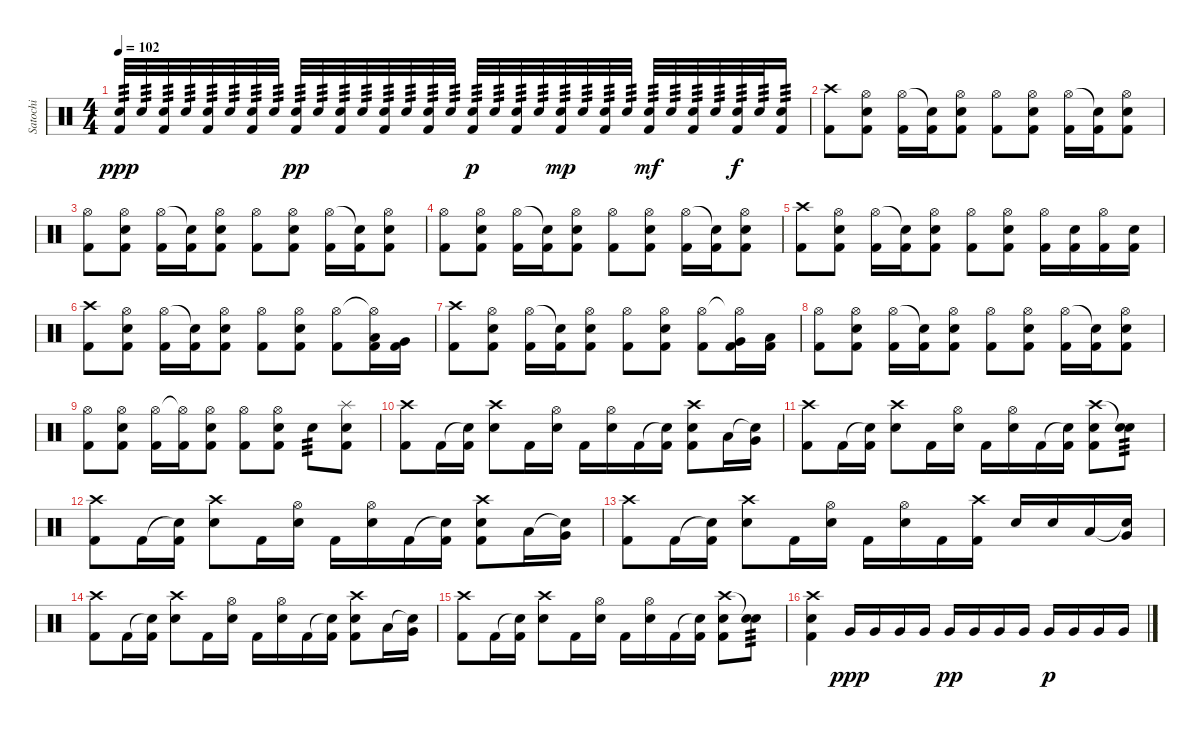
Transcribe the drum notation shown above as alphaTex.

\track ("Satochi" "Satochi") {instrument percussion}
\staff {score}
\articulation defaults
\ts (4 4)
\tempo 102
\clef neutral
\ks c
("Electric Snare (hit)" "Kick (hit) 2").32{tp 3 dy ppp} "Electric Snare (hit)".32{tp 3} ("Electric Snare (hit)" "Kick (hit) 2").32{tp 3} "Electric Snare (hit)".32{tp 3} ("Electric Snare (hit)" "Kick (hit) 2").32{tp 3} "Electric Snare (hit)".32{tp 3} ("Electric Snare (hit)" "Kick (hit) 2").32{tp 3} "Electric Snare (hit)".32{tp 3} ("Electric Snare (hit)" "Kick (hit) 2").32{tp 3 dy pp} "Electric Snare (hit)".32{tp 3} ("Electric Snare (hit)" "Kick (hit) 2").32{tp 3} "Electric Snare (hit)".32{tp 3} ("Electric Snare (hit)" "Kick (hit) 2").32{tp 3} "Electric Snare (hit)".32{tp 3} ("Electric Snare (hit)" "Kick (hit) 2").32{tp 3} "Electric Snare (hit)".32{tp 3} ("Electric Snare (hit)" "Kick (hit) 2").32{tp 3 dy p} "Electric Snare (hit)".32{tp 3} ("Electric Snare (hit)" "Kick (hit) 2").32{tp 3} "Electric Snare (hit)".32{tp 3} ("Electric Snare (hit)" "Kick (hit) 2").32{tp 3 dy mp} "Electric Snare (hit)".32{tp 3} ("Electric Snare (hit)" "Kick (hit) 2").32{tp 3} "Electric Snare (hit)".32{tp 3} ("Electric Snare (hit)" "Kick (hit) 2").32{tp 3 dy mf} "Electric Snare (hit)".32{tp 3} ("Electric Snare (hit)" "Kick (hit) 2").32{tp 3} "Electric Snare (hit)".32{tp 3} ("Electric Snare (hit)" "Kick (hit) 2").32{tp 3 dy f} "Electric Snare (hit)".32{tp 3} ("Electric Snare (hit)" "Kick (hit) 2").16{tp 3} |
("Crash high (hit)" "Kick (hit) 2").8 ("Hi-Hat (open)" "Electric Snare (hit)" "Kick (hit) 2").8 ("Hi-Hat (open)" "Kick (hit) 2").16 ("Snare (hit)"{t} "Kick (hit) 2").16 ("Hi-Hat (open)" "Electric Snare (hit)" "Kick (hit) 2").8 ("Hi-Hat (open)" "Kick (hit) 2").8 ("Hi-Hat (open)" "Electric Snare (hit)" "Kick (hit) 2").8 ("Hi-Hat (open)" "Kick (hit) 2").16 ("Snare (hit)"{t} "Kick (hit) 2").16 ("Hi-Hat (open)" "Electric Snare (hit)" "Kick (hit) 2").8 |
("Hi-Hat (open)" "Kick (hit) 2").8 ("Hi-Hat (open)" "Electric Snare (hit)" "Kick (hit) 2").8 ("Hi-Hat (open)" "Kick (hit) 2").16 ("Snare (hit)"{t} "Kick (hit) 2").16 ("Hi-Hat (open)" "Electric Snare (hit)" "Kick (hit) 2").8 ("Hi-Hat (open)" "Kick (hit) 2").8 ("Hi-Hat (open)" "Electric Snare (hit)" "Kick (hit) 2").8 ("Hi-Hat (open)" "Kick (hit) 2").16 ("Snare (hit)"{t} "Kick (hit) 2").16 ("Hi-Hat (open)" "Electric Snare (hit)" "Kick (hit) 2").8 |
("Hi-Hat (open)" "Kick (hit) 2").8 ("Hi-Hat (open)" "Electric Snare (hit)" "Kick (hit) 2").8 ("Hi-Hat (open)" "Kick (hit) 2").16 ("Snare (hit)"{t} "Kick (hit) 2").16 ("Hi-Hat (open)" "Electric Snare (hit)" "Kick (hit) 2").8 ("Hi-Hat (open)" "Kick (hit) 2").8 ("Hi-Hat (open)" "Electric Snare (hit)" "Kick (hit) 2").8 ("Hi-Hat (open)" "Kick (hit) 2").16 ("Snare (hit)"{t} "Kick (hit) 2").16 ("Hi-Hat (open)" "Electric Snare (hit)" "Kick (hit) 2").8 |
("Crash high (hit)" "Kick (hit) 2").8 ("Hi-Hat (open)" "Electric Snare (hit)" "Kick (hit) 2").8 ("Hi-Hat (open)" "Kick (hit) 2").16 ("Snare (hit)"{t} "Kick (hit) 2").16 ("Hi-Hat (open)" "Electric Snare (hit)" "Kick (hit) 2").8 ("Hi-Hat (open)" "Kick (hit) 2").8 ("Hi-Hat (open)" "Electric Snare (hit)" "Kick (hit) 2").8 ("Hi-Hat (open)" "Kick (hit) 2").16 ("Electric Snare (hit)" "Kick (hit) 2").16 ("Hi-Hat (open)" "Kick (hit) 2").16 ("Electric Snare (hit)" "Kick (hit) 2").16 |
("Crash high (hit)" "Kick (hit) 2").8 ("Hi-Hat (open)" "Electric Snare (hit)" "Kick (hit) 2").8 ("Hi-Hat (open)" "Kick (hit) 2").16 ("Snare (hit)"{t} "Kick (hit) 2").16 ("Hi-Hat (open)" "Electric Snare (hit)" "Kick (hit) 2").8 ("Hi-Hat (open)" "Kick (hit) 2").8 ("Hi-Hat (open)" "Electric Snare (hit)" "Kick (hit) 2").8 ("Hi-Hat (open)" "Kick (hit) 2").8 ("Hi-Hat (open)"{t} "Low Tom (hit)" "Kick (hit) 2").16 ("Very Low Tom (hit)" "Kick (hit) 2").16 |
("Crash high (hit)" "Kick (hit) 2").8 ("Hi-Hat (open)" "Electric Snare (hit)" "Kick (hit) 2").8 ("Hi-Hat (open)" "Kick (hit) 2").16 ("Snare (hit)"{t} "Kick (hit) 2").16 ("Hi-Hat (open)" "Electric Snare (hit)" "Kick (hit) 2").8 ("Hi-Hat (open)" "Kick (hit) 2").8 ("Hi-Hat (open)" "Electric Snare (hit)" "Kick (hit) 2").8 ("Hi-Hat (open)" "Kick (hit) 2").8 ("Hi-Hat (open)"{t} "Very Low Tom (hit)" "Kick (hit) 2").16 ("Low Tom (hit)" "Kick (hit) 2").16 |
("Hi-Hat (open)" "Kick (hit) 2").8 ("Hi-Hat (open)" "Electric Snare (hit)" "Kick (hit) 2").8 ("Hi-Hat (open)" "Kick (hit) 2").16 ("Snare (hit)"{t} "Kick (hit) 2").16 ("Hi-Hat (open)" "Electric Snare (hit)" "Kick (hit) 2").8 ("Hi-Hat (open)" "Kick (hit) 2").8 ("Hi-Hat (open)" "Electric Snare (hit)" "Kick (hit) 2").8 ("Hi-Hat (open)" "Kick (hit) 2").16 ("Snare (hit)"{t} "Kick (hit) 2").16 ("Hi-Hat (open)" "Electric Snare (hit)" "Kick (hit) 2").8 |
("Hi-Hat (open)" "Kick (hit) 2").8 ("Hi-Hat (open)" "Electric Snare (hit)" "Kick (hit) 2").8 ("Hi-Hat (open)" "Kick (hit) 2").16 ("Hi-Hat (open)"{t} "Kick (hit) 2").16 ("Hi-Hat (open)" "Electric Snare (hit)" "Kick (hit) 2").8 ("Hi-Hat (open)" "Kick (hit) 2").8 ("Hi-Hat (open)" "Electric Snare (hit)" "Kick (hit) 2").8 "Electric Snare (hit)".8{tp 3} ("Splash (hit)" "Electric Snare (hit)" "Kick (hit) 2").8 |
("Crash high (hit)" "Kick (hit) 2").8 "Kick (hit) 2".16 ("Snare (hit)"{t} "Kick (hit) 2").16 ("Crash high (hit)" "Electric Snare (hit)").8 "Kick (hit) 2".16 ("Hi-Hat (open)" "Electric Snare (hit)").16 "Kick (hit) 2".16 ("Hi-Hat (open)" "Electric Snare (hit)").16 "Kick (hit) 2".16 ("Snare (hit)"{t} "Kick (hit) 2").16 ("Crash high (hit)" "Electric Snare (hit)" "Kick (hit) 2").8 "Low Tom (hit)".16 ("Snare (hit)"{t} "Very Low Tom (hit)").16 |
("Crash high (hit)" "Kick (hit) 2").8 "Kick (hit) 2".16 ("Snare (hit)"{t} "Kick (hit) 2").16 ("Crash high (hit)" "Electric Snare (hit)").8 "Kick (hit) 2".16 ("Hi-Hat (open)" "Electric Snare (hit)").16 "Kick (hit) 2".16 ("Hi-Hat (open)" "Electric Snare (hit)").16 "Kick (hit) 2".16 ("Snare (hit)"{t} "Kick (hit) 2").16 ("Crash high (hit)" "Electric Snare (hit)" "Kick (hit) 2").8 ("Snare (hit)"{t} "Electric Snare (hit)").8{tp 3} |
("Crash high (hit)" "Kick (hit) 2").8 "Kick (hit) 2".16 ("Snare (hit)"{t} "Kick (hit) 2").16 ("Crash high (hit)" "Electric Snare (hit)").8 "Kick (hit) 2".16 ("Hi-Hat (open)" "Electric Snare (hit)").16 "Kick (hit) 2".16 ("Hi-Hat (open)" "Electric Snare (hit)").16 "Kick (hit) 2".16 ("Snare (hit)"{t} "Kick (hit) 2").16 ("Crash high (hit)" "Electric Snare (hit)" "Kick (hit) 2").8 "Low Tom (hit)".16 ("Snare (hit)"{t} "Very Low Tom (hit)").16 |
("Crash high (hit)" "Kick (hit) 2").8 "Kick (hit) 2".16 ("Snare (hit)"{t} "Kick (hit) 2").16 ("Crash high (hit)" "Electric Snare (hit)").8 "Kick (hit) 2".16 ("Hi-Hat (open)" "Electric Snare (hit)").16 "Kick (hit) 2".16 ("Hi-Hat (open)" "Electric Snare (hit)").16 "Kick (hit) 2".16 ("Crash high (hit)" "Kick (hit) 2").16 "Electric Snare (hit)".16 "Electric Snare (hit)".16 "Low Tom (hit)".16 ("Snare (hit)"{t} "Very Low Tom (hit)").16 |
("Crash high (hit)" "Kick (hit) 2").8 "Kick (hit) 2".16 ("Snare (hit)"{t} "Kick (hit) 2").16 ("Crash high (hit)" "Electric Snare (hit)").8 "Kick (hit) 2".16 ("Hi-Hat (open)" "Electric Snare (hit)").16 "Kick (hit) 2".16 ("Hi-Hat (open)" "Electric Snare (hit)").16 "Kick (hit) 2".16 ("Snare (hit)"{t} "Kick (hit) 2").16 ("Crash high (hit)" "Electric Snare (hit)" "Kick (hit) 2").8 "Low Tom (hit)".16 ("Snare (hit)"{t} "Very Low Tom (hit)").16 |
("Crash high (hit)" "Kick (hit) 2").8 "Kick (hit) 2".16 ("Snare (hit)"{t} "Kick (hit) 2").16 ("Crash high (hit)" "Electric Snare (hit)").8 "Kick (hit) 2".16 ("Hi-Hat (open)" "Electric Snare (hit)").16 "Kick (hit) 2".16 ("Hi-Hat (open)" "Electric Snare (hit)").16 "Kick (hit) 2".16 ("Snare (hit)"{t} "Kick (hit) 2").16 ("Crash high (hit)" "Electric Snare (hit)" "Kick (hit) 2").8 ("Snare (hit)"{t} "Electric Snare (hit)").8{tp 3} |
("Crash high (hit)" "Electric Snare (hit)" "Kick (hit) 2").4 "Very Low Tom (hit)".16{dy ppp} "Very Low Tom (hit)".16 "Very Low Tom (hit)".16 "Very Low Tom (hit)".16 "Very Low Tom (hit)".16{dy pp} "Very Low Tom (hit)".16 "Very Low Tom (hit)".16 "Very Low Tom (hit)".16 "Very Low Tom (hit)".16{dy p} "Very Low Tom (hit)".16 "Very Low Tom (hit)".16 "Very Low Tom (hit)".16
